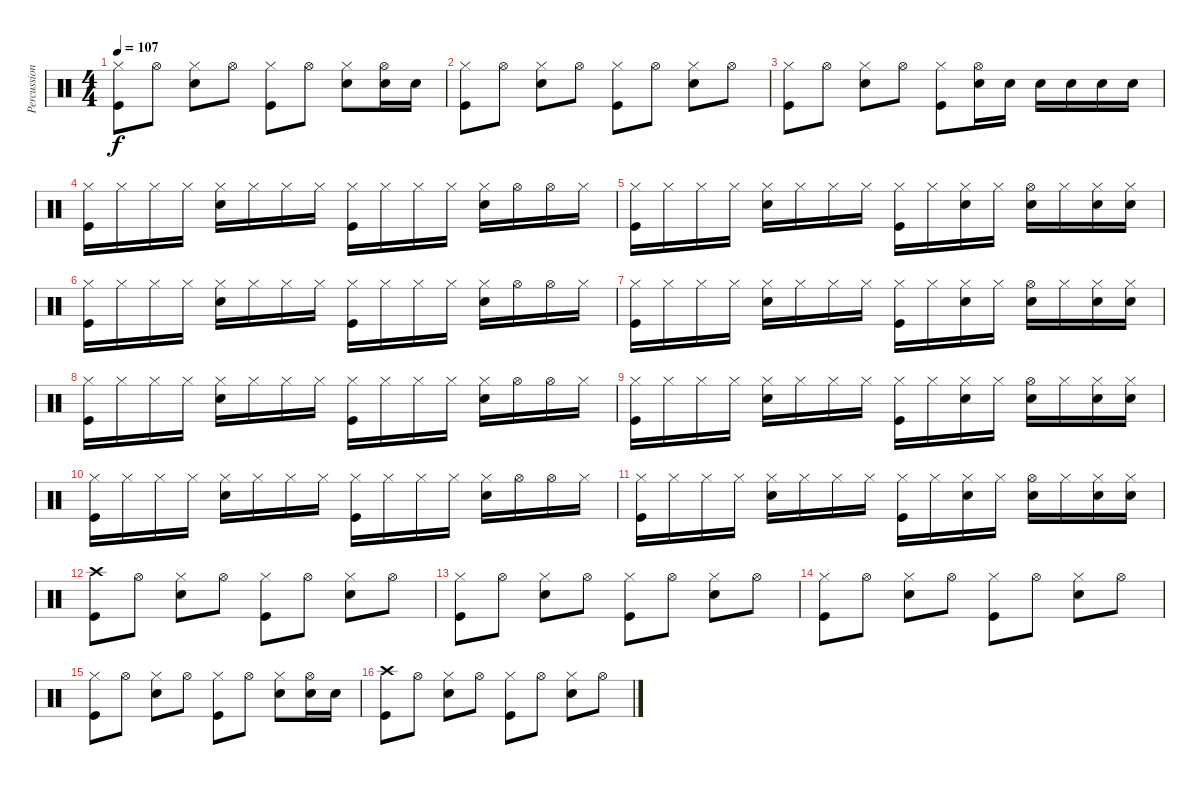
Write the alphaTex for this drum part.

\track ("Percussion" "Percussion") {instrument percussion}
\staff {score}
\articulation defaults
\ts (4 4)
\tempo 107
\clef neutral
\ks c
("Hi-Hat (closed)" "Kick (hit)").8{dy f} "Hi-Hat (open)".8 ("Hi-Hat (closed)" "Snare (hit) 2").8 "Hi-Hat (open)".8 ("Hi-Hat (closed)" "Kick (hit)").8 "Hi-Hat (open)".8 ("Hi-Hat (closed)" "Snare (hit) 2").8 ("Hi-Hat (open)" "Snare (hit) 2").16 "Snare (hit) 2".16 |
("Hi-Hat (closed)" "Kick (hit)").8 "Hi-Hat (open)".8 ("Hi-Hat (closed)" "Snare (hit) 2").8 "Hi-Hat (open)".8 ("Hi-Hat (closed)" "Kick (hit)").8 "Hi-Hat (open)".8 ("Hi-Hat (closed)" "Snare (hit) 2").8 "Hi-Hat (open)".8 |
("Hi-Hat (closed)" "Kick (hit)").8 "Hi-Hat (open)".8 ("Hi-Hat (closed)" "Snare (hit) 2").8 "Hi-Hat (open)".8 ("Hi-Hat (closed)" "Kick (hit)").8 ("Hi-Hat (open)" "Snare (hit) 2").16 "Snare (hit) 2".16 "Snare (hit) 2".16 "Snare (hit) 2".16 "Snare (hit) 2".16 "Snare (hit) 2".16 |
("Hi-Hat (closed)" "Kick (hit)").16 "Hi-Hat (closed)".16 "Hi-Hat (closed)".16 "Hi-Hat (closed)".16 ("Hi-Hat (closed)" "Snare (hit) 2").16 "Hi-Hat (closed)".16 "Hi-Hat (closed)".16 "Hi-Hat (closed)".16 ("Hi-Hat (closed)" "Kick (hit)").16 "Hi-Hat (closed)".16 "Hi-Hat (closed)".16 "Hi-Hat (closed)".16 ("Hi-Hat (closed)" "Snare (hit) 2").16 "Hi-Hat (open)".16 "Hi-Hat (open)".16 "Hi-Hat (closed)".16 |
("Hi-Hat (closed)" "Kick (hit)").16 "Hi-Hat (closed)".16 "Hi-Hat (closed)".16 "Hi-Hat (closed)".16 ("Hi-Hat (closed)" "Snare (hit) 2").16 "Hi-Hat (closed)".16 "Hi-Hat (closed)".16 "Hi-Hat (closed)".16 ("Hi-Hat (closed)" "Kick (hit)").16 "Hi-Hat (closed)".16 ("Hi-Hat (closed)" "Snare (hit) 2").16 "Hi-Hat (closed)".16 ("Hi-Hat (open)" "Snare (hit) 2").16 "Hi-Hat (closed)".16 ("Hi-Hat (closed)" "Snare (hit) 2").16 ("Hi-Hat (closed)" "Snare (hit) 2").16 |
("Hi-Hat (closed)" "Kick (hit)").16 "Hi-Hat (closed)".16 "Hi-Hat (closed)".16 "Hi-Hat (closed)".16 ("Hi-Hat (closed)" "Snare (hit) 2").16 "Hi-Hat (closed)".16 "Hi-Hat (closed)".16 "Hi-Hat (closed)".16 ("Hi-Hat (closed)" "Kick (hit)").16 "Hi-Hat (closed)".16 "Hi-Hat (closed)".16 "Hi-Hat (closed)".16 ("Hi-Hat (closed)" "Snare (hit) 2").16 "Hi-Hat (open)".16 "Hi-Hat (open)".16 "Hi-Hat (closed)".16 |
("Hi-Hat (closed)" "Kick (hit)").16 "Hi-Hat (closed)".16 "Hi-Hat (closed)".16 "Hi-Hat (closed)".16 ("Hi-Hat (closed)" "Snare (hit) 2").16 "Hi-Hat (closed)".16 "Hi-Hat (closed)".16 "Hi-Hat (closed)".16 ("Hi-Hat (closed)" "Kick (hit)").16 "Hi-Hat (closed)".16 ("Hi-Hat (closed)" "Snare (hit) 2").16 "Hi-Hat (closed)".16 ("Hi-Hat (open)" "Snare (hit) 2").16 "Hi-Hat (closed)".16 ("Hi-Hat (closed)" "Snare (hit) 2").16 ("Hi-Hat (closed)" "Snare (hit) 2").16 |
("Hi-Hat (closed)" "Kick (hit)").16 "Hi-Hat (closed)".16 "Hi-Hat (closed)".16 "Hi-Hat (closed)".16 ("Hi-Hat (closed)" "Snare (hit) 2").16 "Hi-Hat (closed)".16 "Hi-Hat (closed)".16 "Hi-Hat (closed)".16 ("Hi-Hat (closed)" "Kick (hit)").16 "Hi-Hat (closed)".16 "Hi-Hat (closed)".16 "Hi-Hat (closed)".16 ("Hi-Hat (closed)" "Snare (hit) 2").16 "Hi-Hat (open)".16 "Hi-Hat (open)".16 "Hi-Hat (closed)".16 |
("Hi-Hat (closed)" "Kick (hit)").16 "Hi-Hat (closed)".16 "Hi-Hat (closed)".16 "Hi-Hat (closed)".16 ("Hi-Hat (closed)" "Snare (hit) 2").16 "Hi-Hat (closed)".16 "Hi-Hat (closed)".16 "Hi-Hat (closed)".16 ("Hi-Hat (closed)" "Kick (hit)").16 "Hi-Hat (closed)".16 ("Hi-Hat (closed)" "Snare (hit) 2").16 "Hi-Hat (closed)".16 ("Hi-Hat (open)" "Snare (hit) 2").16 "Hi-Hat (closed)".16 ("Hi-Hat (closed)" "Snare (hit) 2").16 ("Hi-Hat (closed)" "Snare (hit) 2").16 |
("Hi-Hat (closed)" "Kick (hit)").16 "Hi-Hat (closed)".16 "Hi-Hat (closed)".16 "Hi-Hat (closed)".16 ("Hi-Hat (closed)" "Snare (hit) 2").16 "Hi-Hat (closed)".16 "Hi-Hat (closed)".16 "Hi-Hat (closed)".16 ("Hi-Hat (closed)" "Kick (hit)").16 "Hi-Hat (closed)".16 "Hi-Hat (closed)".16 "Hi-Hat (closed)".16 ("Hi-Hat (closed)" "Snare (hit) 2").16 "Hi-Hat (open)".16 "Hi-Hat (open)".16 "Hi-Hat (closed)".16 |
("Hi-Hat (closed)" "Kick (hit)").16 "Hi-Hat (closed)".16 "Hi-Hat (closed)".16 "Hi-Hat (closed)".16 ("Hi-Hat (closed)" "Snare (hit) 2").16 "Hi-Hat (closed)".16 "Hi-Hat (closed)".16 "Hi-Hat (closed)".16 ("Hi-Hat (closed)" "Kick (hit)").16 "Hi-Hat (closed)".16 ("Hi-Hat (closed)" "Snare (hit) 2").16 "Hi-Hat (closed)".16 ("Hi-Hat (open)" "Snare (hit) 2").16 "Hi-Hat (closed)".16 ("Hi-Hat (closed)" "Snare (hit) 2").16 ("Hi-Hat (closed)" "Snare (hit) 2").16 |
("Crash high (hit)" "Kick (hit)").8 "Hi-Hat (open)".8 ("Hi-Hat (closed)" "Snare (hit) 2").8 "Hi-Hat (open)".8 ("Hi-Hat (closed)" "Kick (hit)").8 "Hi-Hat (open)".8 ("Hi-Hat (closed)" "Snare (hit) 2").8 "Hi-Hat (open)".8 |
("Hi-Hat (closed)" "Kick (hit)").8 "Hi-Hat (open)".8 ("Hi-Hat (closed)" "Snare (hit) 2").8 "Hi-Hat (open)".8 ("Hi-Hat (closed)" "Kick (hit)").8 "Hi-Hat (open)".8 ("Hi-Hat (closed)" "Snare (hit) 2").8 "Hi-Hat (open)".8 |
("Hi-Hat (closed)" "Kick (hit)").8 "Hi-Hat (open)".8 ("Hi-Hat (closed)" "Snare (hit) 2").8 "Hi-Hat (open)".8 ("Hi-Hat (closed)" "Kick (hit)").8 "Hi-Hat (open)".8 ("Hi-Hat (closed)" "Snare (hit) 2").8 "Hi-Hat (open)".8 |
("Hi-Hat (closed)" "Kick (hit)").8 "Hi-Hat (open)".8 ("Hi-Hat (closed)" "Snare (hit) 2").8 "Hi-Hat (open)".8 ("Hi-Hat (closed)" "Kick (hit)").8 "Hi-Hat (open)".8 ("Hi-Hat (closed)" "Snare (hit) 2").8 ("Hi-Hat (open)" "Snare (hit) 2").16 "Snare (hit) 2".16 |
("Crash high (hit)" "Kick (hit)").8 "Hi-Hat (open)".8 ("Hi-Hat (closed)" "Snare (hit) 2").8 "Hi-Hat (open)".8 ("Hi-Hat (closed)" "Kick (hit)").8 "Hi-Hat (open)".8 ("Hi-Hat (closed)" "Snare (hit) 2").8 "Hi-Hat (open)".8
